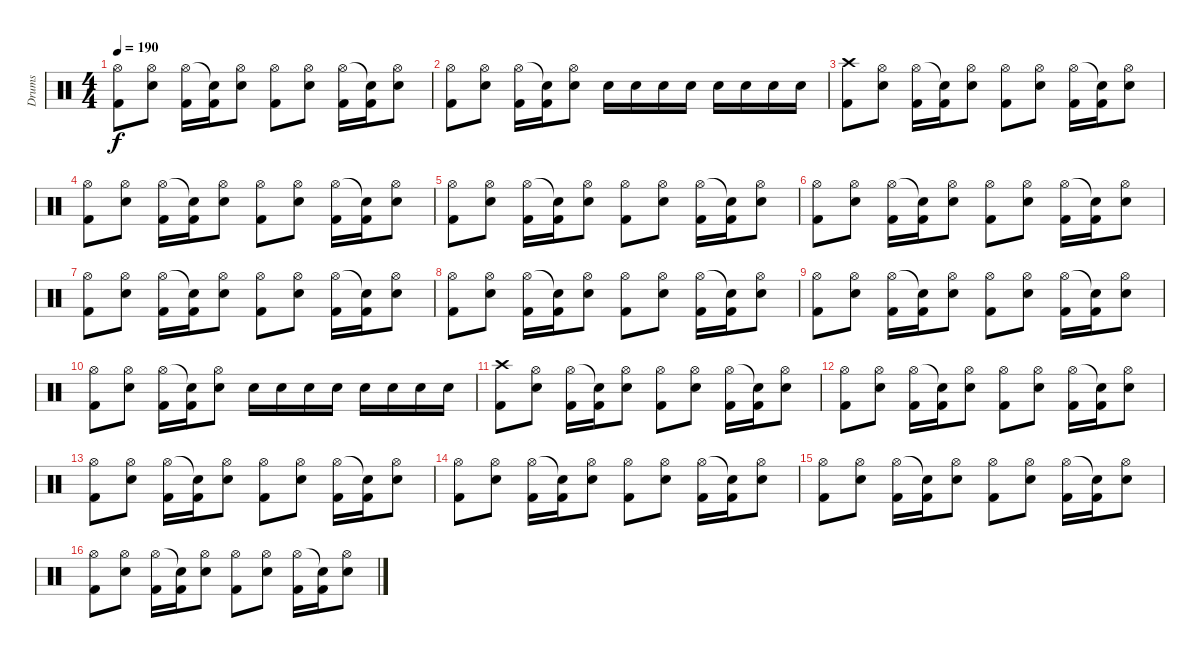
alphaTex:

\track ("Drums" "Drums") {instrument percussion}
\staff {score}
\articulation defaults
\ts (4 4)
\tempo 190
\clef neutral
\ks c
("Hi-Hat (open)" "Kick (hit) 2").8{dy f} ("Hi-Hat (open)" "Snare (hit) 2").8 ("Hi-Hat (open)" "Kick (hit) 2").16 ("Snare (hit)"{t} "Kick (hit) 2").16 ("Hi-Hat (open)" "Snare (hit) 2").8 ("Hi-Hat (open)" "Kick (hit) 2").8 ("Hi-Hat (open)" "Snare (hit) 2").8 ("Hi-Hat (open)" "Kick (hit) 2").16 ("Snare (hit)"{t} "Kick (hit) 2").16 ("Hi-Hat (open)" "Snare (hit) 2").8 |
("Hi-Hat (open)" "Kick (hit) 2").8 ("Hi-Hat (open)" "Snare (hit) 2").8 ("Hi-Hat (open)" "Kick (hit) 2").16 ("Snare (hit)"{t} "Kick (hit) 2").16 ("Hi-Hat (open)" "Snare (hit) 2").8 "Snare (hit) 2".16 "Snare (hit) 2".16 "Snare (hit) 2".16 "Snare (hit) 2".16 "Snare (hit) 2".16 "Snare (hit) 2".16 "Snare (hit) 2".16 "Snare (hit) 2".16 |
("Crash high (hit)" "Kick (hit) 2").8 ("Hi-Hat (open)" "Snare (hit) 2").8 ("Hi-Hat (open)" "Kick (hit) 2").16 ("Snare (hit)"{t} "Kick (hit) 2").16 ("Hi-Hat (open)" "Snare (hit) 2").8 ("Hi-Hat (open)" "Kick (hit) 2").8 ("Hi-Hat (open)" "Snare (hit) 2").8 ("Hi-Hat (open)" "Kick (hit) 2").16 ("Snare (hit)"{t} "Kick (hit) 2").16 ("Hi-Hat (open)" "Snare (hit) 2").8 |
("Hi-Hat (open)" "Kick (hit) 2").8 ("Hi-Hat (open)" "Snare (hit) 2").8 ("Hi-Hat (open)" "Kick (hit) 2").16 ("Snare (hit)"{t} "Kick (hit) 2").16 ("Hi-Hat (open)" "Snare (hit) 2").8 ("Hi-Hat (open)" "Kick (hit) 2").8 ("Hi-Hat (open)" "Snare (hit) 2").8 ("Hi-Hat (open)" "Kick (hit) 2").16 ("Snare (hit)"{t} "Kick (hit) 2").16 ("Hi-Hat (open)" "Snare (hit) 2").8 |
("Hi-Hat (open)" "Kick (hit) 2").8 ("Hi-Hat (open)" "Snare (hit) 2").8 ("Hi-Hat (open)" "Kick (hit) 2").16 ("Snare (hit)"{t} "Kick (hit) 2").16 ("Hi-Hat (open)" "Snare (hit) 2").8 ("Hi-Hat (open)" "Kick (hit) 2").8 ("Hi-Hat (open)" "Snare (hit) 2").8 ("Hi-Hat (open)" "Kick (hit) 2").16 ("Snare (hit)"{t} "Kick (hit) 2").16 ("Hi-Hat (open)" "Snare (hit) 2").8 |
("Hi-Hat (open)" "Kick (hit) 2").8 ("Hi-Hat (open)" "Snare (hit) 2").8 ("Hi-Hat (open)" "Kick (hit) 2").16 ("Snare (hit)"{t} "Kick (hit) 2").16 ("Hi-Hat (open)" "Snare (hit) 2").8 ("Hi-Hat (open)" "Kick (hit) 2").8 ("Hi-Hat (open)" "Snare (hit) 2").8 ("Hi-Hat (open)" "Kick (hit) 2").16 ("Snare (hit)"{t} "Kick (hit) 2").16 ("Hi-Hat (open)" "Snare (hit) 2").8 |
("Hi-Hat (open)" "Kick (hit) 2").8 ("Hi-Hat (open)" "Snare (hit) 2").8 ("Hi-Hat (open)" "Kick (hit) 2").16 ("Snare (hit)"{t} "Kick (hit) 2").16 ("Hi-Hat (open)" "Snare (hit) 2").8 ("Hi-Hat (open)" "Kick (hit) 2").8 ("Hi-Hat (open)" "Snare (hit) 2").8 ("Hi-Hat (open)" "Kick (hit) 2").16 ("Snare (hit)"{t} "Kick (hit) 2").16 ("Hi-Hat (open)" "Snare (hit) 2").8 |
("Hi-Hat (open)" "Kick (hit) 2").8 ("Hi-Hat (open)" "Snare (hit) 2").8 ("Hi-Hat (open)" "Kick (hit) 2").16 ("Snare (hit)"{t} "Kick (hit) 2").16 ("Hi-Hat (open)" "Snare (hit) 2").8 ("Hi-Hat (open)" "Kick (hit) 2").8 ("Hi-Hat (open)" "Snare (hit) 2").8 ("Hi-Hat (open)" "Kick (hit) 2").16 ("Snare (hit)"{t} "Kick (hit) 2").16 ("Hi-Hat (open)" "Snare (hit) 2").8 |
("Hi-Hat (open)" "Kick (hit) 2").8 ("Hi-Hat (open)" "Snare (hit) 2").8 ("Hi-Hat (open)" "Kick (hit) 2").16 ("Snare (hit)"{t} "Kick (hit) 2").16 ("Hi-Hat (open)" "Snare (hit) 2").8 ("Hi-Hat (open)" "Kick (hit) 2").8 ("Hi-Hat (open)" "Snare (hit) 2").8 ("Hi-Hat (open)" "Kick (hit) 2").16 ("Snare (hit)"{t} "Kick (hit) 2").16 ("Hi-Hat (open)" "Snare (hit) 2").8 |
("Hi-Hat (open)" "Kick (hit) 2").8 ("Hi-Hat (open)" "Snare (hit) 2").8 ("Hi-Hat (open)" "Kick (hit) 2").16 ("Snare (hit)"{t} "Kick (hit) 2").16 ("Hi-Hat (open)" "Snare (hit) 2").8 "Snare (hit) 2".16 "Snare (hit) 2".16 "Snare (hit) 2".16 "Snare (hit) 2".16 "Snare (hit) 2".16 "Snare (hit) 2".16 "Snare (hit) 2".16 "Snare (hit) 2".16 |
("Crash high (hit)" "Kick (hit) 2").8 ("Hi-Hat (open)" "Snare (hit) 2").8 ("Hi-Hat (open)" "Kick (hit) 2").16 ("Snare (hit)"{t} "Kick (hit) 2").16 ("Hi-Hat (open)" "Snare (hit) 2").8 ("Hi-Hat (open)" "Kick (hit) 2").8 ("Hi-Hat (open)" "Snare (hit) 2").8 ("Hi-Hat (open)" "Kick (hit) 2").16 ("Snare (hit)"{t} "Kick (hit) 2").16 ("Hi-Hat (open)" "Snare (hit) 2").8 |
("Hi-Hat (open)" "Kick (hit) 2").8 ("Hi-Hat (open)" "Snare (hit) 2").8 ("Hi-Hat (open)" "Kick (hit) 2").16 ("Snare (hit)"{t} "Kick (hit) 2").16 ("Hi-Hat (open)" "Snare (hit) 2").8 ("Hi-Hat (open)" "Kick (hit) 2").8 ("Hi-Hat (open)" "Snare (hit) 2").8 ("Hi-Hat (open)" "Kick (hit) 2").16 ("Snare (hit)"{t} "Kick (hit) 2").16 ("Hi-Hat (open)" "Snare (hit) 2").8 |
("Hi-Hat (open)" "Kick (hit) 2").8 ("Hi-Hat (open)" "Snare (hit) 2").8 ("Hi-Hat (open)" "Kick (hit) 2").16 ("Snare (hit)"{t} "Kick (hit) 2").16 ("Hi-Hat (open)" "Snare (hit) 2").8 ("Hi-Hat (open)" "Kick (hit) 2").8 ("Hi-Hat (open)" "Snare (hit) 2").8 ("Hi-Hat (open)" "Kick (hit) 2").16 ("Snare (hit)"{t} "Kick (hit) 2").16 ("Hi-Hat (open)" "Snare (hit) 2").8 |
("Hi-Hat (open)" "Kick (hit) 2").8 ("Hi-Hat (open)" "Snare (hit) 2").8 ("Hi-Hat (open)" "Kick (hit) 2").16 ("Snare (hit)"{t} "Kick (hit) 2").16 ("Hi-Hat (open)" "Snare (hit) 2").8 ("Hi-Hat (open)" "Kick (hit) 2").8 ("Hi-Hat (open)" "Snare (hit) 2").8 ("Hi-Hat (open)" "Kick (hit) 2").16 ("Snare (hit)"{t} "Kick (hit) 2").16 ("Hi-Hat (open)" "Snare (hit) 2").8 |
("Hi-Hat (open)" "Kick (hit) 2").8 ("Hi-Hat (open)" "Snare (hit) 2").8 ("Hi-Hat (open)" "Kick (hit) 2").16 ("Snare (hit)"{t} "Kick (hit) 2").16 ("Hi-Hat (open)" "Snare (hit) 2").8 ("Hi-Hat (open)" "Kick (hit) 2").8 ("Hi-Hat (open)" "Snare (hit) 2").8 ("Hi-Hat (open)" "Kick (hit) 2").16 ("Snare (hit)"{t} "Kick (hit) 2").16 ("Hi-Hat (open)" "Snare (hit) 2").8 |
("Hi-Hat (open)" "Kick (hit) 2").8 ("Hi-Hat (open)" "Snare (hit) 2").8 ("Hi-Hat (open)" "Kick (hit) 2").16 ("Snare (hit)"{t} "Kick (hit) 2").16 ("Hi-Hat (open)" "Snare (hit) 2").8 ("Hi-Hat (open)" "Kick (hit) 2").8 ("Hi-Hat (open)" "Snare (hit) 2").8 ("Hi-Hat (open)" "Kick (hit) 2").16 ("Snare (hit)"{t} "Kick (hit) 2").16 ("Hi-Hat (open)" "Snare (hit) 2").8
